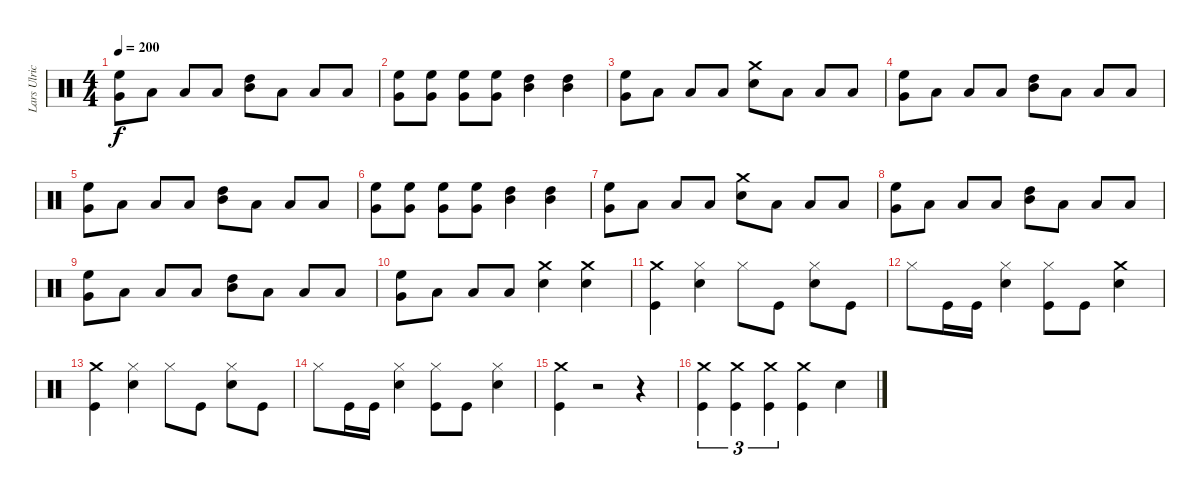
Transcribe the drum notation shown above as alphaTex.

\track ("Lars Ulrich (Drums)" "Lars Ulric") {instrument percussion}
\staff {score}
\articulation defaults
\ts (4 4)
\tempo 200
\clef neutral
\ks c
("High Floor Tom (hit)" "Very Low Tom (hit)").8{dy f} "Low Tom (hit)".8 "Low Tom (hit)".8 "Low Tom (hit)".8 ("Mid Tom (hit)" "High Tom (hit)").8 "Low Tom (hit)".8 "Low Tom (hit)".8 "Low Tom (hit)".8 |
("High Floor Tom (hit)" "Very Low Tom (hit)").8 ("High Floor Tom (hit)" "Very Low Tom (hit)").8 ("High Floor Tom (hit)" "Very Low Tom (hit)").8 ("High Floor Tom (hit)" "Very Low Tom (hit)").8 ("Mid Tom (hit)" "High Tom (hit)").4 ("Mid Tom (hit)" "High Tom (hit)").4 |
("Very Low Tom (hit)" "High Floor Tom (hit)").8 "Low Tom (hit)".8 "Low Tom (hit)".8 "Low Tom (hit)".8 ("Crash medium (hit)" "Snare (hit) 2").8 "Low Tom (hit)".8 "Low Tom (hit)".8 "Low Tom (hit)".8 |
("High Floor Tom (hit)" "Very Low Tom (hit)").8 "Low Tom (hit)".8 "Low Tom (hit)".8 "Low Tom (hit)".8 ("Mid Tom (hit)" "High Tom (hit)").8 "Low Tom (hit)".8 "Low Tom (hit)".8 "Low Tom (hit)".8 |
("High Floor Tom (hit)" "Very Low Tom (hit)").8 "Low Tom (hit)".8 "Low Tom (hit)".8 "Low Tom (hit)".8 ("Mid Tom (hit)" "High Tom (hit)").8 "Low Tom (hit)".8 "Low Tom (hit)".8 "Low Tom (hit)".8 |
("High Floor Tom (hit)" "Very Low Tom (hit)").8 ("High Floor Tom (hit)" "Very Low Tom (hit)").8 ("High Floor Tom (hit)" "Very Low Tom (hit)").8 ("High Floor Tom (hit)" "Very Low Tom (hit)").8 ("Mid Tom (hit)" "High Tom (hit)").4 ("Mid Tom (hit)" "High Tom (hit)").4 |
("Very Low Tom (hit)" "High Floor Tom (hit)").8 "Low Tom (hit)".8 "Low Tom (hit)".8 "Low Tom (hit)".8 ("Crash medium (hit)" "Snare (hit) 2").8 "Low Tom (hit)".8 "Low Tom (hit)".8 "Low Tom (hit)".8 |
("High Floor Tom (hit)" "Very Low Tom (hit)").8 "Low Tom (hit)".8 "Low Tom (hit)".8 "Low Tom (hit)".8 ("Mid Tom (hit)" "High Tom (hit)").8 "Low Tom (hit)".8 "Low Tom (hit)".8 "Low Tom (hit)".8 |
("High Floor Tom (hit)" "Very Low Tom (hit)").8 "Low Tom (hit)".8 "Low Tom (hit)".8 "Low Tom (hit)".8 ("Mid Tom (hit)" "High Tom (hit)").8 "Low Tom (hit)".8 "Low Tom (hit)".8 "Low Tom (hit)".8 |
("Very Low Tom (hit)" "High Floor Tom (hit)").8 "Low Tom (hit)".8 "Low Tom (hit)".8 "Low Tom (hit)".8 ("Crash medium (hit)" "Snare (hit) 2").4 ("Crash medium (hit)" "Snare (hit) 2").4 |
("Kick (hit)" "Crash medium (hit)").4 ("Hi-Hat (closed)" "Snare (hit) 2").4 "Hi-Hat (closed)".8 "Kick (hit)".8 ("Snare (hit) 2" "Hi-Hat (closed)").8 "Kick (hit)".8 |
"Hi-Hat (closed)".8 "Kick (hit)".16 "Kick (hit)".16 ("Snare (hit) 2" "Hi-Hat (closed)").4 ("Hi-Hat (closed)" "Kick (hit)").8 "Kick (hit)".8 ("Crash medium (hit)" "Snare (hit) 2").4 |
("Kick (hit)" "Crash medium (hit)").4 ("Hi-Hat (closed)" "Snare (hit) 2").4 "Hi-Hat (closed)".8 "Kick (hit)".8 ("Snare (hit) 2" "Hi-Hat (closed)").8 "Kick (hit)".8 |
"Hi-Hat (closed)".8 "Kick (hit)".16 "Kick (hit)".16 ("Snare (hit) 2" "Hi-Hat (closed)").4 ("Hi-Hat (closed)" "Kick (hit)").8 "Kick (hit)".8 ("Snare (hit) 2" "Hi-Hat (closed)").4 |
("Crash medium (hit)" "Kick (hit)").4 r.2 r.4 |
("Kick (hit)" "Crash medium (hit)").4{tu (3 2)} ("Kick (hit)" "Crash medium (hit)").4{tu (3 2)} ("Kick (hit)" "Crash medium (hit)").4{tu (3 2)} ("Kick (hit)" "Crash medium (hit)").4 "Snare (hit) 2".4
